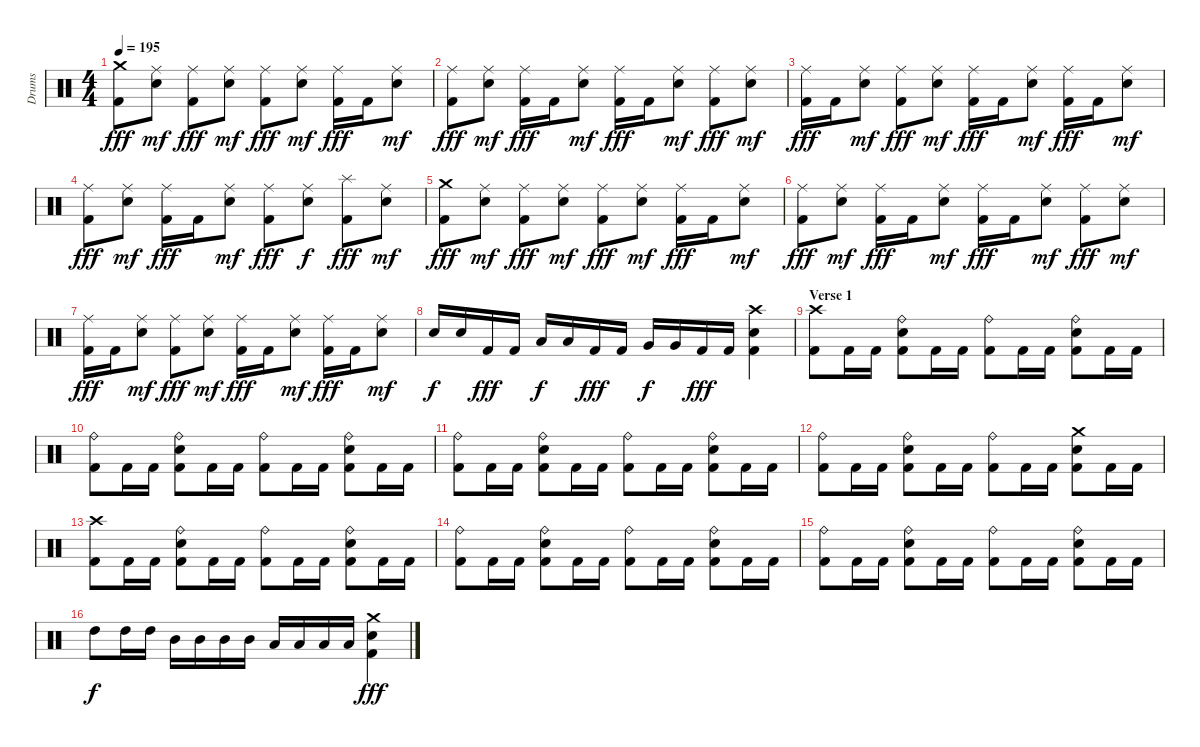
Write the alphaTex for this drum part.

\track ("Drums" "Drums") {instrument percussion}
\staff {score}
\articulation defaults
\ts (4 4)
\tempo 195
\clef neutral
\ks c
("Crash medium (hit)" "Kick (hit) 2").8{dy fff} ("Ride (middle)" "Snare (hit) 2").8{dy mf} ("Ride (middle)" "Kick (hit) 2").8{dy fff} ("Ride (middle)" "Snare (hit) 2").8{dy mf} ("Ride (middle)" "Kick (hit) 2").8{dy fff} ("Ride (middle)" "Snare (hit) 2").8{dy mf} ("Ride (middle)" "Kick (hit) 2").16{dy fff} "Kick (hit) 2".16 ("Ride (middle)" "Snare (hit) 2").8{dy mf} |
("Ride (middle)" "Kick (hit) 2").8{dy fff} ("Ride (middle)" "Snare (hit) 2").8{dy mf} ("Ride (middle)" "Kick (hit) 2").16{dy fff} "Kick (hit) 2".16 ("Ride (middle)" "Snare (hit) 2").8{dy mf} ("Ride (middle)" "Kick (hit) 2").16{dy fff} "Kick (hit) 2".16 ("Ride (middle)" "Snare (hit) 2").8{dy mf} ("Ride (middle)" "Kick (hit) 2").8{dy fff} ("Ride (middle)" "Snare (hit) 2").8{dy mf} |
("Ride (middle)" "Kick (hit) 2").16{dy fff} "Kick (hit) 2".16 ("Ride (middle)" "Snare (hit) 2").8{dy mf} ("Ride (middle)" "Kick (hit) 2").8{dy fff} ("Ride (middle)" "Snare (hit) 2").8{dy mf} ("Ride (middle)" "Kick (hit) 2").16{dy fff} "Kick (hit) 2".16 ("Ride (middle)" "Snare (hit) 2").8{dy mf} ("Ride (middle)" "Kick (hit) 2").16{dy fff} "Kick (hit) 2".16 ("Ride (middle)" "Snare (hit) 2").8{dy mf} |
("Ride (middle)" "Kick (hit) 2").8{dy fff} ("Ride (middle)" "Snare (hit) 2").8{dy mf} ("Ride (middle)" "Kick (hit) 2").16{dy fff} "Kick (hit) 2".16 ("Ride (middle)" "Snare (hit) 2").8{dy mf} ("Ride (middle)" "Kick (hit) 2").8{dy fff} ("Ride (middle)" "Snare (hit) 2").8{dy f} ("Splash (hit)" "Kick (hit) 2").8{dy fff} ("Ride (middle)" "Snare (hit) 2").8{dy mf} |
("Crash medium (hit)" "Kick (hit) 2").8{dy fff} ("Ride (middle)" "Snare (hit) 2").8{dy mf} ("Ride (middle)" "Kick (hit) 2").8{dy fff} ("Ride (middle)" "Snare (hit) 2").8{dy mf} ("Ride (middle)" "Kick (hit) 2").8{dy fff} ("Ride (middle)" "Snare (hit) 2").8{dy mf} ("Ride (middle)" "Kick (hit) 2").16{dy fff} "Kick (hit) 2".16 ("Ride (middle)" "Snare (hit) 2").8{dy mf} |
("Ride (middle)" "Kick (hit) 2").8{dy fff} ("Ride (middle)" "Snare (hit) 2").8{dy mf} ("Ride (middle)" "Kick (hit) 2").16{dy fff} "Kick (hit) 2".16 ("Ride (middle)" "Snare (hit) 2").8{dy mf} ("Ride (middle)" "Kick (hit) 2").16{dy fff} "Kick (hit) 2".16 ("Ride (middle)" "Snare (hit) 2").8{dy mf} ("Ride (middle)" "Kick (hit) 2").8{dy fff} ("Ride (middle)" "Snare (hit) 2").8{dy mf} |
("Ride (middle)" "Kick (hit) 2").16{dy fff} "Kick (hit) 2".16 ("Ride (middle)" "Snare (hit) 2").8{dy mf} ("Ride (middle)" "Kick (hit) 2").8{dy fff} ("Ride (middle)" "Snare (hit) 2").8{dy mf} ("Ride (middle)" "Kick (hit) 2").16{dy fff} "Kick (hit) 2".16 ("Ride (middle)" "Snare (hit) 2").8{dy mf} ("Ride (middle)" "Kick (hit) 2").16{dy fff} "Kick (hit) 2".16 ("Ride (middle)" "Snare (hit) 2").8{dy mf} |
"Snare (hit) 2".16{dy f} "Snare (hit) 2".16 "Kick (hit) 2".16{dy fff} "Kick (hit) 2".16 "Low Tom (hit)".16{dy f} "Low Tom (hit)".16 "Kick (hit) 2".16{dy fff} "Kick (hit) 2".16 "Very Low Tom (hit)".16{dy f} "Very Low Tom (hit)".16 "Kick (hit) 2".16{dy fff} "Kick (hit) 2".16 ("Crash high (hit)" "Snare (hit) 2" "Kick (hit) 2").4 |
\section ("" "Verse 1")
("Crash high (hit)" "Kick (hit) 2").8 "Kick (hit) 2".16 "Kick (hit) 2".16 ("Ride (bell)" "Snare (hit) 2" "Kick (hit) 2").8 "Kick (hit) 2".16 "Kick (hit) 2".16 ("Ride (bell)" "Kick (hit) 2").8 "Kick (hit) 2".16 "Kick (hit) 2".16 ("Ride (bell)" "Snare (hit) 2" "Kick (hit) 2").8 "Kick (hit) 2".16 "Kick (hit) 2".16 |
("Ride (bell)" "Kick (hit) 2").8 "Kick (hit) 2".16 "Kick (hit) 2".16 ("Ride (bell)" "Snare (hit) 2" "Kick (hit) 2").8 "Kick (hit) 2".16 "Kick (hit) 2".16 ("Ride (bell)" "Kick (hit) 2").8 "Kick (hit) 2".16 "Kick (hit) 2".16 ("Ride (bell)" "Snare (hit) 2" "Kick (hit) 2").8 "Kick (hit) 2".16 "Kick (hit) 2".16 |
("Ride (bell)" "Kick (hit) 2").8 "Kick (hit) 2".16 "Kick (hit) 2".16 ("Ride (bell)" "Snare (hit) 2" "Kick (hit) 2").8 "Kick (hit) 2".16 "Kick (hit) 2".16 ("Ride (bell)" "Kick (hit) 2").8 "Kick (hit) 2".16 "Kick (hit) 2".16 ("Ride (bell)" "Snare (hit) 2" "Kick (hit) 2").8 "Kick (hit) 2".16 "Kick (hit) 2".16 |
("Ride (bell)" "Kick (hit) 2").8 "Kick (hit) 2".16 "Kick (hit) 2".16 ("Ride (bell)" "Snare (hit) 2" "Kick (hit) 2").8 "Kick (hit) 2".16 "Kick (hit) 2".16 ("Ride (bell)" "Kick (hit) 2").8 "Kick (hit) 2".16 "Kick (hit) 2".16 ("Crash medium (hit)" "Snare (hit) 2" "Kick (hit) 2").8 "Kick (hit) 2".16 "Kick (hit) 2".16 |
("Crash high (hit)" "Kick (hit) 2").8 "Kick (hit) 2".16 "Kick (hit) 2".16 ("Ride (bell)" "Snare (hit) 2" "Kick (hit) 2").8 "Kick (hit) 2".16 "Kick (hit) 2".16 ("Ride (bell)" "Kick (hit) 2").8 "Kick (hit) 2".16 "Kick (hit) 2".16 ("Ride (bell)" "Snare (hit) 2" "Kick (hit) 2").8 "Kick (hit) 2".16 "Kick (hit) 2".16 |
("Ride (bell)" "Kick (hit) 2").8 "Kick (hit) 2".16 "Kick (hit) 2".16 ("Ride (bell)" "Snare (hit) 2" "Kick (hit) 2").8 "Kick (hit) 2".16 "Kick (hit) 2".16 ("Ride (bell)" "Kick (hit) 2").8 "Kick (hit) 2".16 "Kick (hit) 2".16 ("Ride (bell)" "Snare (hit) 2" "Kick (hit) 2").8 "Kick (hit) 2".16 "Kick (hit) 2".16 |
("Ride (bell)" "Kick (hit) 2").8 "Kick (hit) 2".16 "Kick (hit) 2".16 ("Ride (bell)" "Snare (hit) 2" "Kick (hit) 2").8 "Kick (hit) 2".16 "Kick (hit) 2".16 ("Ride (bell)" "Kick (hit) 2").8 "Kick (hit) 2".16 "Kick (hit) 2".16 ("Ride (bell)" "Snare (hit) 2" "Kick (hit) 2").8 "Kick (hit) 2".16 "Kick (hit) 2".16 |
"High Tom (hit)".8{dy f} "High Tom (hit)".16 "High Tom (hit)".16 "Mid Tom (hit)".16 "Mid Tom (hit)".16 "Mid Tom (hit)".16 "Mid Tom (hit)".16 "Low Tom (hit)".16 "Low Tom (hit)".16 "Low Tom (hit)".16 "Low Tom (hit)".16 ("Crash medium (hit)" "Snare (hit) 2" "Kick (hit) 2").4{dy fff}
